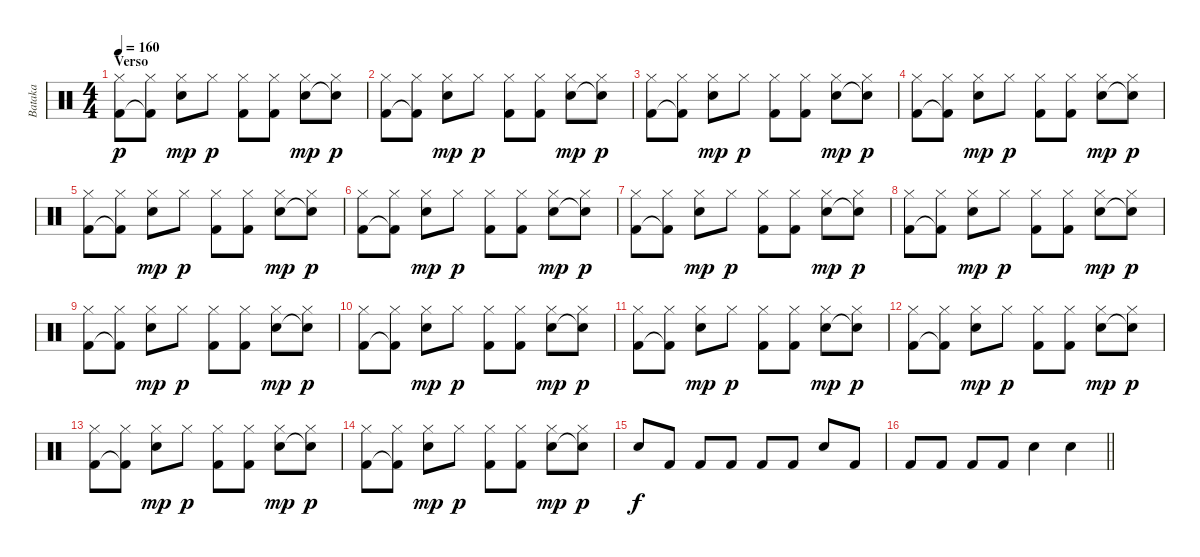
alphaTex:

\track ("Bataka" "Bataka") {instrument percussion}
\staff {score}
\articulation defaults
\ts (4 4)
\section ("" "Verso")
\tempo 160
\clef neutral
\ks c
("Hi-Hat (closed)" "Kick (hit) 2").8{dy p} ("Hi-Hat (closed)" "Kick (hit) 2"{t}).8 ("Hi-Hat (closed)" "Electric Snare (hit)").8{dy mp} "Hi-Hat (closed)".8{dy p} ("Hi-Hat (closed)" "Kick (hit) 2").8 ("Hi-Hat (closed)" "Kick (hit) 2").8 ("Hi-Hat (closed)" "Electric Snare (hit)").8{dy mp} ("Hi-Hat (closed)" "Snare (hit)"{t}).8{dy p} |
("Hi-Hat (closed)" "Kick (hit) 2").8 ("Hi-Hat (closed)" "Kick (hit) 2"{t}).8 ("Hi-Hat (closed)" "Electric Snare (hit)").8{dy mp} "Hi-Hat (closed)".8{dy p} ("Hi-Hat (closed)" "Kick (hit) 2").8 ("Hi-Hat (closed)" "Kick (hit) 2").8 ("Hi-Hat (closed)" "Electric Snare (hit)").8{dy mp} ("Hi-Hat (closed)" "Snare (hit)"{t}).8{dy p} |
("Hi-Hat (closed)" "Kick (hit) 2").8 ("Hi-Hat (closed)" "Kick (hit) 2"{t}).8 ("Hi-Hat (closed)" "Electric Snare (hit)").8{dy mp} "Hi-Hat (closed)".8{dy p} ("Hi-Hat (closed)" "Kick (hit) 2").8 ("Hi-Hat (closed)" "Kick (hit) 2").8 ("Hi-Hat (closed)" "Electric Snare (hit)").8{dy mp} ("Hi-Hat (closed)" "Snare (hit)"{t}).8{dy p} |
("Hi-Hat (closed)" "Kick (hit) 2").8 ("Hi-Hat (closed)" "Kick (hit) 2"{t}).8 ("Hi-Hat (closed)" "Electric Snare (hit)").8{dy mp} "Hi-Hat (closed)".8{dy p} ("Hi-Hat (closed)" "Kick (hit) 2").8 ("Hi-Hat (closed)" "Kick (hit) 2").8 ("Hi-Hat (closed)" "Electric Snare (hit)").8{dy mp} ("Hi-Hat (closed)" "Snare (hit)"{t}).8{dy p} |
("Hi-Hat (closed)" "Kick (hit) 2").8 ("Hi-Hat (closed)" "Kick (hit) 2"{t}).8 ("Hi-Hat (closed)" "Electric Snare (hit)").8{dy mp} "Hi-Hat (closed)".8{dy p} ("Hi-Hat (closed)" "Kick (hit) 2").8 ("Hi-Hat (closed)" "Kick (hit) 2").8 ("Hi-Hat (closed)" "Electric Snare (hit)").8{dy mp} ("Hi-Hat (closed)" "Snare (hit)"{t}).8{dy p} |
("Hi-Hat (closed)" "Kick (hit) 2").8 ("Hi-Hat (closed)" "Kick (hit) 2"{t}).8 ("Hi-Hat (closed)" "Electric Snare (hit)").8{dy mp} "Hi-Hat (closed)".8{dy p} ("Hi-Hat (closed)" "Kick (hit) 2").8 ("Hi-Hat (closed)" "Kick (hit) 2").8 ("Hi-Hat (closed)" "Electric Snare (hit)").8{dy mp} ("Hi-Hat (closed)" "Snare (hit)"{t}).8{dy p} |
("Hi-Hat (closed)" "Kick (hit) 2").8 ("Hi-Hat (closed)" "Kick (hit) 2"{t}).8 ("Hi-Hat (closed)" "Electric Snare (hit)").8{dy mp} "Hi-Hat (closed)".8{dy p} ("Hi-Hat (closed)" "Kick (hit) 2").8 ("Hi-Hat (closed)" "Kick (hit) 2").8 ("Hi-Hat (closed)" "Electric Snare (hit)").8{dy mp} ("Hi-Hat (closed)" "Snare (hit)"{t}).8{dy p} |
("Hi-Hat (closed)" "Kick (hit) 2").8 ("Hi-Hat (closed)" "Kick (hit) 2"{t}).8 ("Hi-Hat (closed)" "Electric Snare (hit)").8{dy mp} "Hi-Hat (closed)".8{dy p} ("Hi-Hat (closed)" "Kick (hit) 2").8 ("Hi-Hat (closed)" "Kick (hit) 2").8 ("Hi-Hat (closed)" "Electric Snare (hit)").8{dy mp} ("Hi-Hat (closed)" "Snare (hit)"{t}).8{dy p} |
("Hi-Hat (closed)" "Kick (hit) 2").8 ("Hi-Hat (closed)" "Kick (hit) 2"{t}).8 ("Hi-Hat (closed)" "Electric Snare (hit)").8{dy mp} "Hi-Hat (closed)".8{dy p} ("Hi-Hat (closed)" "Kick (hit) 2").8 ("Hi-Hat (closed)" "Kick (hit) 2").8 ("Hi-Hat (closed)" "Electric Snare (hit)").8{dy mp} ("Hi-Hat (closed)" "Snare (hit)"{t}).8{dy p} |
("Hi-Hat (closed)" "Kick (hit) 2").8 ("Hi-Hat (closed)" "Kick (hit) 2"{t}).8 ("Hi-Hat (closed)" "Electric Snare (hit)").8{dy mp} "Hi-Hat (closed)".8{dy p} ("Hi-Hat (closed)" "Kick (hit) 2").8 ("Hi-Hat (closed)" "Kick (hit) 2").8 ("Hi-Hat (closed)" "Electric Snare (hit)").8{dy mp} ("Hi-Hat (closed)" "Snare (hit)"{t}).8{dy p} |
("Hi-Hat (closed)" "Kick (hit) 2").8 ("Hi-Hat (closed)" "Kick (hit) 2"{t}).8 ("Hi-Hat (closed)" "Electric Snare (hit)").8{dy mp} "Hi-Hat (closed)".8{dy p} ("Hi-Hat (closed)" "Kick (hit) 2").8 ("Hi-Hat (closed)" "Kick (hit) 2").8 ("Hi-Hat (closed)" "Electric Snare (hit)").8{dy mp} ("Hi-Hat (closed)" "Snare (hit)"{t}).8{dy p} |
("Hi-Hat (closed)" "Kick (hit) 2").8 ("Hi-Hat (closed)" "Kick (hit) 2"{t}).8 ("Hi-Hat (closed)" "Electric Snare (hit)").8{dy mp} "Hi-Hat (closed)".8{dy p} ("Hi-Hat (closed)" "Kick (hit) 2").8 ("Hi-Hat (closed)" "Kick (hit) 2").8 ("Hi-Hat (closed)" "Electric Snare (hit)").8{dy mp} ("Hi-Hat (closed)" "Snare (hit)"{t}).8{dy p} |
("Hi-Hat (closed)" "Kick (hit) 2").8 ("Hi-Hat (closed)" "Kick (hit) 2"{t}).8 ("Hi-Hat (closed)" "Electric Snare (hit)").8{dy mp} "Hi-Hat (closed)".8{dy p} ("Hi-Hat (closed)" "Kick (hit) 2").8 ("Hi-Hat (closed)" "Kick (hit) 2").8 ("Hi-Hat (closed)" "Electric Snare (hit)").8{dy mp} ("Hi-Hat (closed)" "Snare (hit)"{t}).8{dy p} |
("Hi-Hat (closed)" "Kick (hit) 2").8 ("Hi-Hat (closed)" "Kick (hit) 2"{t}).8 ("Hi-Hat (closed)" "Electric Snare (hit)").8{dy mp} "Hi-Hat (closed)".8{dy p} ("Hi-Hat (closed)" "Kick (hit) 2").8 ("Hi-Hat (closed)" "Kick (hit) 2").8 ("Hi-Hat (closed)" "Electric Snare (hit)").8{dy mp} ("Hi-Hat (closed)" "Snare (hit)"{t}).8{dy p} |
"Electric Snare (hit)".8{dy f} "Kick (hit) 2".8 "Kick (hit) 2".8 "Kick (hit) 2".8 "Kick (hit) 2".8 "Kick (hit) 2".8 "Electric Snare (hit)".8 "Kick (hit) 2".8 |
\barLineRight lightlight "Kick (hit) 2".8 "Kick (hit) 2".8 "Kick (hit) 2".8 "Kick (hit) 2".8 "Electric Snare (hit)".4 "Electric Snare (hit)".4
